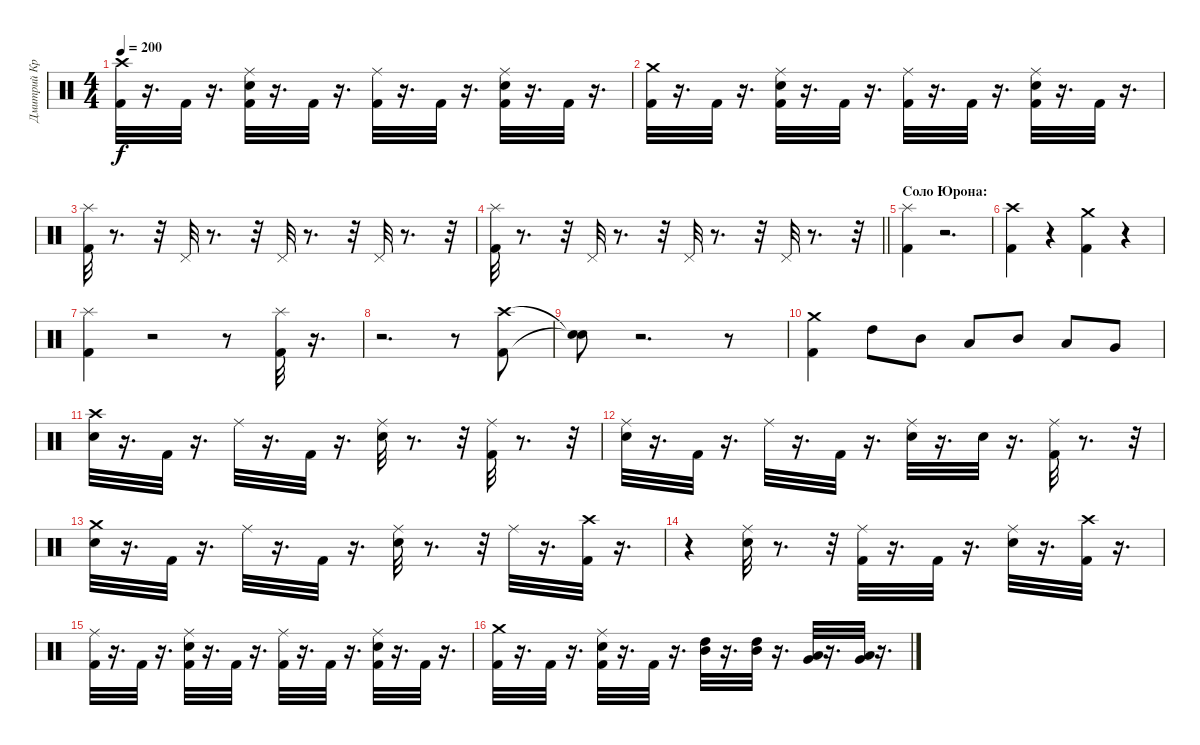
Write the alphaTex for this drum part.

\track ("Дмитрий Кривенков" "Дмитрий Кр") {instrument percussion}
\staff {score}
\articulation defaults
\ts (4 4)
\tempo 200
\clef neutral
\ks c
("Crash high (hit)" "Kick (hit) 2").32{dy f} r.16{d} "Kick (hit) 2".32 r.16{d} ("Electric Snare (hit)" "Ride (middle)" "Kick (hit) 2").32 r.16{d} "Kick (hit) 2".32 r.16{d} ("Ride (middle)" "Kick (hit) 2").32 r.16{d} "Kick (hit) 2".32 r.16{d} ("Electric Snare (hit)" "Ride (middle)" "Kick (hit) 2").32 r.16{d} "Kick (hit) 2".32 r.16{d} |
("Kick (hit) 2" "Crash medium (hit)").32 r.16{d} "Kick (hit) 2".32 r.16{d} ("Kick (hit) 2" "Electric Snare (hit)" "Ride (middle)").32 r.16{d} "Kick (hit) 2".32 r.16{d} ("Kick (hit) 2" "Ride (middle)").32 r.16{d} "Kick (hit) 2".32 r.16{d} ("Kick (hit) 2" "Electric Snare (hit)" "Ride (middle)").32 r.16{d} "Kick (hit) 2".32 r.16{d} |
("Splash (hit)" "Kick (hit) 2").32 r.8{d} r.32 "Pedal Hi-Hat (hit)".32 r.8{d} r.32 "Pedal Hi-Hat (hit)".32 r.8{d} r.32 "Pedal Hi-Hat (hit)".32 r.8{d} r.32 |
\barLineRight lightlight
("Splash (hit)" "Kick (hit) 2").32 r.8{d} r.32 "Pedal Hi-Hat (hit)".32 r.8{d} r.32 "Pedal Hi-Hat (hit)".32 r.8{d} r.32 "Pedal Hi-Hat (hit)".32 r.8{d} r.32 |
\section ("" "Соло Юрона:")
("Splash (hit)" "Kick (hit) 2").4 r.2{d} |
("Crash high (hit)" "Kick (hit) 2").4 r.4 ("Crash medium (hit)" "Kick (hit) 2").4 r.4 |
("Splash (hit)" "Kick (hit) 2").4 r.2 r.8 ("Splash (hit)" "Kick (hit) 2").32 r.16{d} |
r.2{d} r.8 ("Crash high (hit)" "Kick (hit) 2").8 |
("Snare (hit)"{t} "Snare (hit)"{t}).8 r.2{d} r.8 |
("Crash medium (hit)" "Kick (hit) 2").4 "High Tom (hit)".8 "Mid Tom (hit)".8 "Low Tom (hit)".8 "Mid Tom (hit)".8 "Low Tom (hit)".8 "Very Low Tom (hit)".8 |
("Crash high (hit)" "Electric Snare (hit)").32 r.16{d} "Kick (hit) 2".32 r.16{d} "Ride (middle)".32 r.16{d} "Kick (hit) 2".32 r.16{d} ("Electric Snare (hit)" "Ride (middle)").32 r.8{d} r.32 ("Ride (middle)" "Kick (hit) 2").32 r.8{d} r.32 |
("Electric Snare (hit)" "Ride (middle)").32 r.16{d} "Kick (hit) 2".32 r.16{d} "Ride (middle)".32 r.16{d} "Kick (hit) 2".32 r.16{d} ("Ride (middle)" "Electric Snare (hit)").32 r.16{d} "Electric Snare (hit)".32 r.16{d} ("Ride (middle)" "Kick (hit) 2").32 r.8{d} r.32 |
("Electric Snare (hit)" "Crash medium (hit)").32 r.16{d} "Kick (hit) 2".32 r.16{d} "Ride (middle)".32 r.16{d} "Kick (hit) 2".32 r.16{d} ("Ride (middle)" "Electric Snare (hit)").32 r.8{d} r.32 "Ride (middle)".32 r.16{d} ("Crash high (hit)" "Kick (hit) 2").32 r.16{d} |
r.4 ("Electric Snare (hit)" "Ride (middle)").32 r.8{d} r.32 ("Ride (middle)" "Kick (hit) 2").32 r.16{d} "Kick (hit) 2".32 r.16{d} ("Ride (middle)" "Electric Snare (hit)").32 r.16{d} ("Kick (hit) 2" "Crash high (hit)").32 r.16{d} |
("Ride (middle)" "Kick (hit) 2").32 r.16{d} "Kick (hit) 2".32 r.16{d} ("Ride (middle)" "Kick (hit) 2" "Electric Snare (hit)").32 r.16{d} "Kick (hit) 2".32 r.16{d} ("Kick (hit) 2" "Ride (middle)").32 r.16{d} "Kick (hit) 2".32 r.16{d} ("Kick (hit) 2" "Electric Snare (hit)" "Ride (middle)").32 r.16{d} "Kick (hit) 2".32 r.16{d} |
("Crash medium (hit)" "Kick (hit) 2").32 r.16{d} "Kick (hit) 2".32 r.16{d} ("Kick (hit) 2" "Ride (middle)" "Electric Snare (hit)").32 r.16{d} "Kick (hit) 2".32 r.16{d} ("Mid Tom (hit)" "High Tom (hit)").32 r.16{d} ("Mid Tom (hit)" "High Tom (hit)").32 r.16{d} ("Very Low Tom (hit)" "Low Tom (hit)").32 r.16{d} ("Low Tom (hit)" "Very Low Tom (hit)").32 r.16{d}
